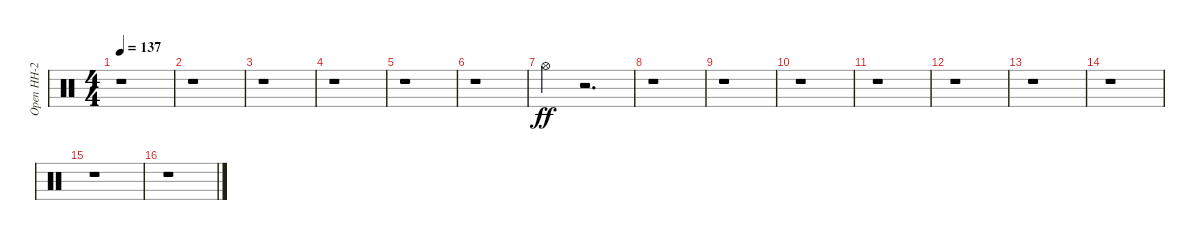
\track ("Open HH-2" "Open HH-2") {instrument percussion}
\staff {score}
\articulation defaults
\ts (4 4)
\tempo 137
\clef neutral
\ks c
r.1{dy f} |
r.1 |
r.1 |
r.1 |
r.1 |
r.1 |
"Hi-Hat (open)".4{dy ff} r.2{d} |
r.1 |
r.1 |
r.1 |
r.1 |
r.1 |
r.1 |
r.1 |
r.1 |
r.1
